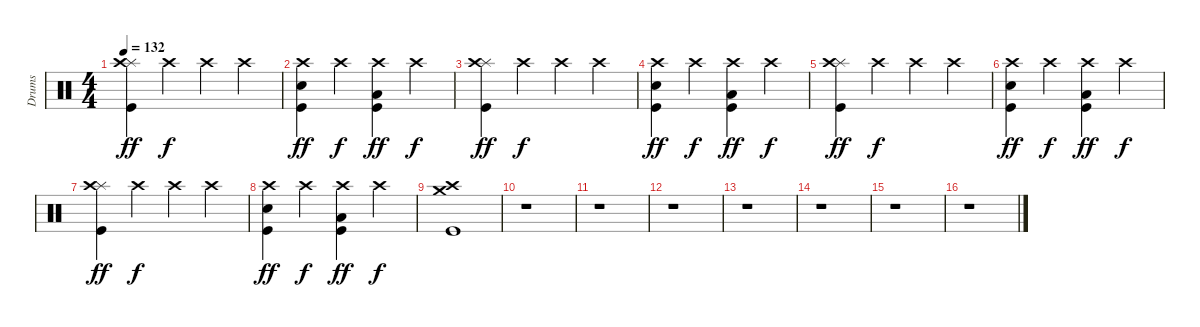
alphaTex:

\track ("Drums" "Drums") {instrument percussion}
\staff {score}
\articulation defaults
\ts (4 4)
\tempo 132
\clef neutral
\ks c
("Splash (hit)" "Crash high (hit)" "Kick (hit)").4{dy ff} "Crash high (hit)".4{dy f} "Crash high (hit)".4 "Crash high (hit)".4 |
("Crash high (hit)" "Electric Snare (hit)" "Kick (hit)").4{dy ff} "Crash high (hit)".4{dy f} ("Crash high (hit)" "Low Floor Tom (hit)" "Kick (hit)").4{dy ff} "Crash high (hit)".4{dy f} |
("Splash (hit)" "Crash high (hit)" "Kick (hit)").4{dy ff} "Crash high (hit)".4{dy f} "Crash high (hit)".4 "Crash high (hit)".4 |
("Crash high (hit)" "Electric Snare (hit)" "Kick (hit)").4{dy ff} "Crash high (hit)".4{dy f} ("Crash high (hit)" "Low Floor Tom (hit)" "Kick (hit)").4{dy ff} "Crash high (hit)".4{dy f} |
("Splash (hit)" "Crash high (hit)" "Kick (hit)").4{dy ff} "Crash high (hit)".4{dy f} "Crash high (hit)".4 "Crash high (hit)".4 |
("Crash high (hit)" "Electric Snare (hit)" "Kick (hit)").4{dy ff} "Crash high (hit)".4{dy f} ("Crash high (hit)" "Low Floor Tom (hit)" "Kick (hit)").4{dy ff} "Crash high (hit)".4{dy f} |
("Splash (hit)" "Crash high (hit)" "Kick (hit)").4{dy ff} "Crash high (hit)".4{dy f} "Crash high (hit)".4 "Crash high (hit)".4 |
("Crash high (hit)" "Electric Snare (hit)" "Kick (hit)").4{dy ff} "Crash high (hit)".4{dy f} ("Crash high (hit)" "Low Floor Tom (hit)" "Kick (hit)").4{dy ff} "Crash high (hit)".4{dy f} |
("Crash medium (hit)" "Crash high (hit)" "Kick (hit)").1 |
r.1 |
r.1 |
r.1 |
r.1 |
r.1 |
r.1 |
r.1
